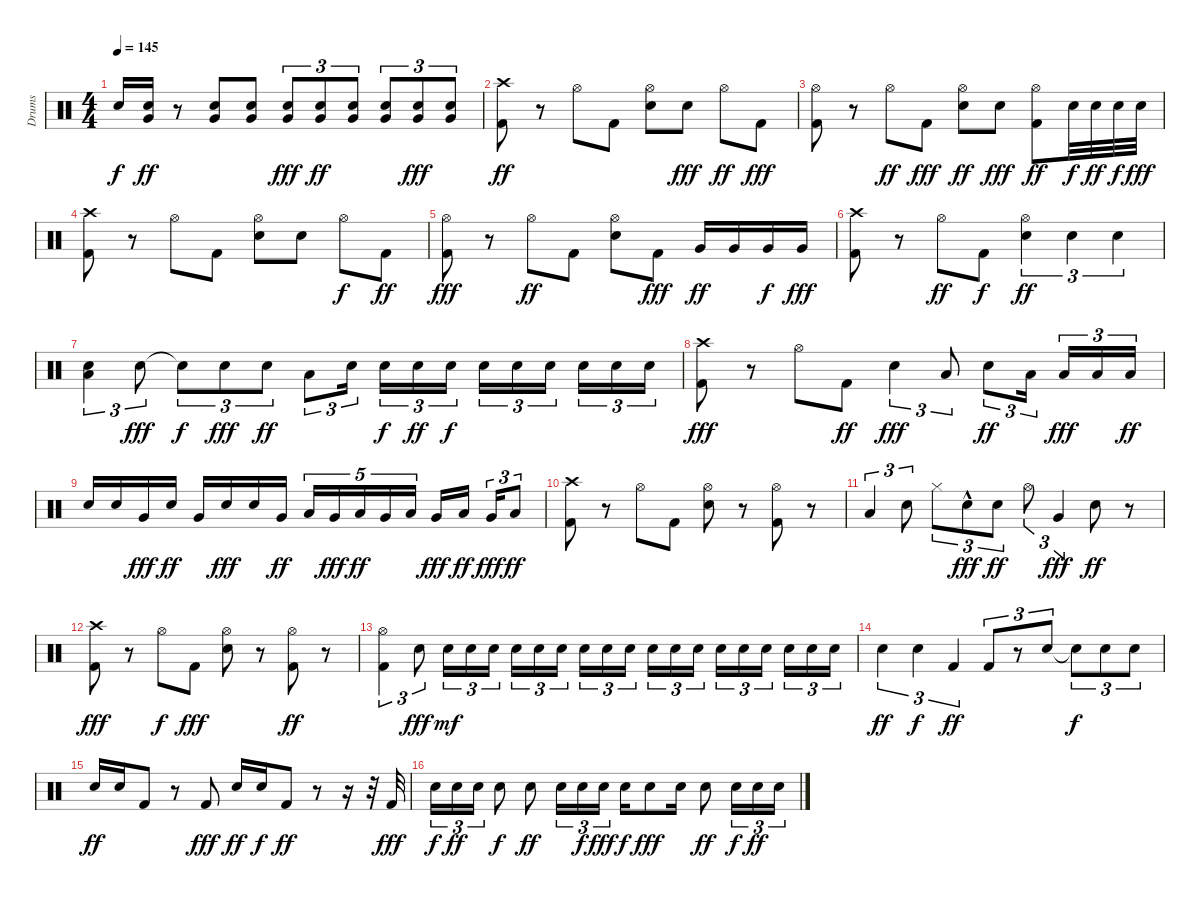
\track ("Drums" "Drums") {instrument percussion}
\staff {score}
\articulation defaults
\ts (4 4)
\tempo 145
\clef neutral
\ks c "Snare (hit)"{t}.16{dy f}
("Snare (hit) 2" "Very Low Tom (hit)").16{dy ff} r.8 ("Snare (hit) 2" "Very Low Tom (hit)").8 ("Snare (hit) 2" "Very Low Tom (hit)").8 ("Snare (hit) 2" "Very Low Tom (hit)").8{tu (3 2) dy fff} ("Snare (hit) 2" "Very Low Tom (hit)").8{tu (3 2) dy ff} ("Snare (hit) 2" "Very Low Tom (hit)").8{tu (3 2)} ("Snare (hit) 2" "Very Low Tom (hit)").8{tu (3 2)} ("Snare (hit) 2" "Very Low Tom (hit)").8{tu (3 2) dy fff} ("Snare (hit) 2" "Very Low Tom (hit)").8{tu (3 2)} |
("Crash high (hit)" "Kick (hit) 2").8{dy ff} r.8 "Hi-Hat (open)".8 "Kick (hit) 2".8 ("Hi-Hat (open)" "Snare (hit) 2").8 "Snare (hit) 2".8{dy fff} "Hi-Hat (open)".8{dy ff} "Kick (hit) 2".8{dy fff} |
("Hi-Hat (open)" "Kick (hit) 2").8 r.8 "Hi-Hat (open)".8{dy ff} "Kick (hit) 2".8{dy fff} ("Hi-Hat (open)" "Snare (hit) 2").8{dy ff} "Snare (hit) 2".8{dy fff} ("Hi-Hat (open)" "Kick (hit) 2").8{dy ff} "Snare (hit) 2".32{dy f} "Snare (hit) 2".32{dy ff} "Snare (hit) 2".32{dy f} "Snare (hit) 2".32{dy fff} |
("Crash high (hit)" "Kick (hit) 2").8 r.8 "Hi-Hat (open)".8 "Kick (hit) 2".8 ("Hi-Hat (open)" "Snare (hit) 2").8 "Snare (hit) 2".8 "Hi-Hat (open)".8{dy f} "Kick (hit) 2".8{dy ff} |
("Hi-Hat (open)" "Kick (hit) 2").8{dy fff} r.8 "Hi-Hat (open)".8{dy ff} "Kick (hit) 2".8 ("Hi-Hat (open)" "Snare (hit) 2").8 "Kick (hit) 2".8{dy fff} "Very Low Tom (hit)".16{dy ff} "Very Low Tom (hit)".16 "Very Low Tom (hit)".16{dy f} "Very Low Tom (hit)".16{dy fff} |
("Crash high (hit)" "Kick (hit) 2").8 r.8 "Hi-Hat (open)".8{dy ff} "Kick (hit) 2".8{dy f} ("Hi-Hat (open)" "Snare (hit) 2").4{tu (3 2) dy ff} "Snare (hit) 2".4{tu (3 2)} "Snare (hit) 2".4{tu (3 2)} |
("Snare (hit) 2" "Low Tom (hit)").4{tu (3 2)} "Snare (hit) 2".8{tu (3 2) dy fff} "Snare (hit)"{t}.8{tu (3 2) dy f} "Snare (hit) 2".8{tu (3 2) dy fff} "Snare (hit) 2".8{tu (3 2) dy ff} "Low Tom (hit)".8{tu (3 2)} "Snare (hit) 2".16{tu (3 2)} "Snare (hit) 2".16{tu (3 2) dy f} "Snare (hit) 2".16{tu (3 2) dy ff} "Snare (hit) 2".16{tu (3 2) dy f} "Snare (hit) 2".16{tu (3 2)} "Snare (hit) 2".16{tu (3 2)} "Snare (hit) 2".16{tu (3 2)} "Snare (hit) 2".16{tu (3 2)} "Snare (hit) 2".16{tu (3 2)} "Snare (hit) 2".16{tu (3 2)} |
("Crash high (hit)" "Kick (hit) 2").8{dy fff} r.8 "Hi-Hat (open)".8 "Kick (hit) 2".8{dy ff} "Snare (hit) 2".4{tu (3 2) dy fff} "Low Tom (hit)".8{tu (3 2)} "Snare (hit) 2".8{tu (3 2) dy ff} "Low Tom (hit)".16{tu (3 2)} "Low Tom (hit)".16{tu (3 2) dy fff} "Low Tom (hit)".16{tu (3 2)} "Low Tom (hit)".16{tu (3 2) dy ff} |
"Snare (hit) 2".16 "Snare (hit) 2".16 "Very Low Tom (hit)".16{dy fff} "Snare (hit) 2".16{dy ff} "Very Low Tom (hit)".16 "Snare (hit) 2".16{dy fff} "Snare (hit) 2".16 "Very Low Tom (hit)".16{dy ff} "Low Tom (hit)".16{tu (5 4)} "Very Low Tom (hit)".16{tu (5 4) dy fff} "Low Tom (hit)".16{tu (5 4) dy ff} "Very Low Tom (hit)".16{tu (5 4)} "Low Tom (hit)".16{tu (5 4)} "Very Low Tom (hit)".16{dy fff} "Low Tom (hit)".16{dy ff} "Very Low Tom (hit)".16{tu (3 2) dy fff} "Low Tom (hit)".8{tu (3 2) dy ff} |
("Crash high (hit)" "Kick (hit) 2").8 r.8 "Hi-Hat (open)".8 "Kick (hit) 2".8 ("Hi-Hat (open)" "Snare (hit) 2").8 r.8 ("Hi-Hat (open)" "Kick (hit) 2").8 r.8 |
"Low Tom (hit)".4{tu (3 2)} "Snare (hit) 2".8{tu (3 2)} "Hi-Hat (closed)".8{tu (3 2)} "Snare (hit) 2"{hac}.8{tu (3 2) dy fff} "Snare (hit) 2".8{tu (3 2) dy ff} "Hi-Hat (open)".8{tu (3 2)} "Very Low Tom (hit)".4{tu (3 2) dy fff} "Snare (hit) 2".8{dy ff} r.8 |
("Crash high (hit)" "Kick (hit) 2").8{dy fff} r.8 "Hi-Hat (open)".8{dy f} "Kick (hit) 2".8{dy fff} ("Hi-Hat (open)" "Snare (hit) 2").8 r.8 ("Hi-Hat (open)" "Kick (hit) 2").8{dy ff} r.8 |
("Hi-Hat (open)" "Kick (hit) 2").4{tu (3 2)} "Snare (hit) 2".8{tu (3 2) dy fff} "Snare (hit) 2".16{tu (3 2) dy mf} "Snare (hit) 2".16{tu (3 2)} "Snare (hit) 2".16{tu (3 2)} "Snare (hit) 2".16{tu (3 2)} "Snare (hit) 2".16{tu (3 2)} "Snare (hit) 2".16{tu (3 2)} "Snare (hit) 2".16{tu (3 2)} "Snare (hit) 2".16{tu (3 2)} "Snare (hit) 2".16{tu (3 2)} "Snare (hit) 2".16{tu (3 2)} "Snare (hit) 2".16{tu (3 2)} "Snare (hit) 2".16{tu (3 2)} "Snare (hit) 2".16{tu (3 2)} "Snare (hit) 2".16{tu (3 2)} "Snare (hit) 2".16{tu (3 2)} "Snare (hit) 2".16{tu (3 2)} "Snare (hit) 2".16{tu (3 2)} "Snare (hit) 2".16{tu (3 2)} |
"Snare (hit) 2".4{tu (3 2) dy ff} "Snare (hit) 2".4{tu (3 2) dy f} "Kick (hit) 2".4{tu (3 2) dy ff} "Kick (hit) 2".8{tu (3 2)} r.8{tu (3 2)} "Snare (hit) 2".8{tu (3 2)} "Snare (hit)"{t}.8{tu (3 2) dy f} "Snare (hit) 2".8{tu (3 2)} "Snare (hit) 2".8{tu (3 2)} |
"Snare (hit) 2".16{dy ff} "Snare (hit) 2".16 "Kick (hit) 2".8 r.8 "Kick (hit) 2".8{dy fff} "Snare (hit) 2".16{dy ff} "Snare (hit) 2".16{dy f} "Kick (hit) 2".8{dy ff} r.8 r.16 r.32 "Kick (hit) 2".32{dy fff} |
"Snare (hit) 2".16{tu (3 2) dy f} "Snare (hit) 2".16{tu (3 2) dy ff} "Snare (hit) 2".16{tu (3 2)} "Snare (hit) 2".8{dy f} "Snare (hit) 2".8{dy ff} "Snare (hit) 2".16{tu (3 2)} "Snare (hit) 2".16{tu (3 2) dy f} "Snare (hit) 2".16{tu (3 2) dy fff} "Snare (hit) 2".16{dy f} "Snare (hit) 2".8{dy fff} "Snare (hit) 2".16 "Snare (hit) 2".8{dy ff} "Snare (hit) 2".16{tu (3 2) dy f} "Snare (hit) 2".16{tu (3 2) dy ff} "Snare (hit) 2".16{tu (3 2)}
